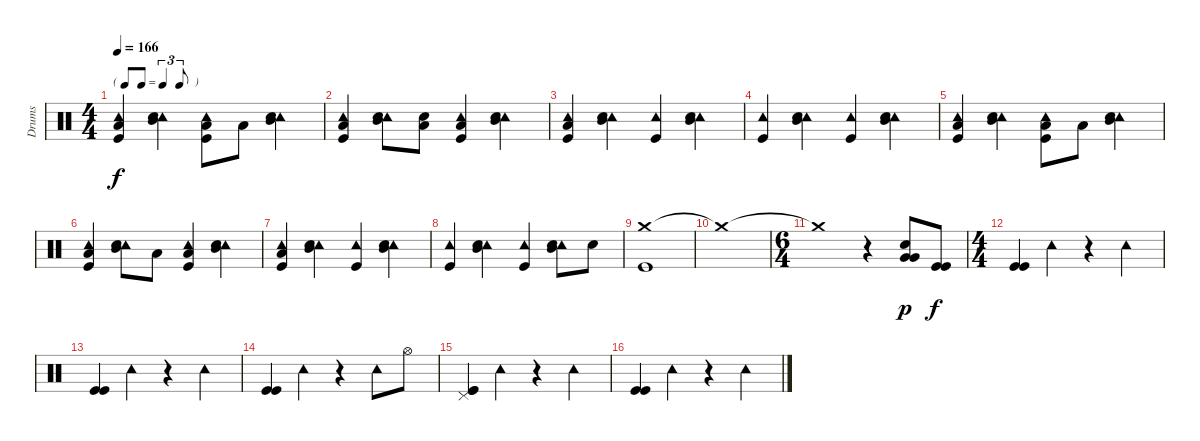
\track ("Drums" "Drums") {instrument percussion}
\staff {score}
\articulation defaults
\ts (4 4)
\tf triplet8th
\tempo 166
\clef neutral
\ks c
("Tambourine (hit)" "Low Floor Tom (hit)" "Kick (hit)").4{dy f} ("Tambourine (hit)" "Snare (hit) 2" "Mid Tom (hit)").4 ("Tambourine (hit)" "Low Tom (hit)" "Kick (hit)").8 "Low Floor Tom (hit)".8 ("Tambourine (hit)" "Snare (hit) 2" "Mid Tom (hit)").4 |
("Tambourine (hit)" "Low Floor Tom (hit)" "Kick (hit)").4 ("Tambourine (hit)" "Snare (hit) 2" "Mid Tom (hit)").8 ("Snare (hit) 2" "Low Tom (hit)").8 ("Tambourine (hit)" "Low Floor Tom (hit)" "Kick (hit)").4 ("Tambourine (hit)" "Snare (hit) 2" "Mid Tom (hit)").4 |
("Tambourine (hit)" "Low Floor Tom (hit)" "Kick (hit)").4 ("Tambourine (hit)" "Snare (hit) 2" "Mid Tom (hit)").4 ("Tambourine (hit)" "Kick (hit)").4 ("Tambourine (hit)" "Snare (hit) 2" "Mid Tom (hit)").4 |
("Tambourine (hit)" "Kick (hit)").4 ("Tambourine (hit)" "Snare (hit) 2" "Mid Tom (hit)").4 ("Tambourine (hit)" "Kick (hit)").4 ("Tambourine (hit)" "Snare (hit) 2" "Mid Tom (hit)").4 |
("Tambourine (hit)" "Low Floor Tom (hit)" "Kick (hit)").4 ("Tambourine (hit)" "Snare (hit) 2" "Mid Tom (hit)").4 ("Tambourine (hit)" "Low Tom (hit)" "Kick (hit)").8 "Low Floor Tom (hit)".8 ("Tambourine (hit)" "Snare (hit) 2" "Mid Tom (hit)").4 |
("Tambourine (hit)" "Low Floor Tom (hit)" "Kick (hit)").4 ("Tambourine (hit)" "Snare (hit) 2" "Mid Tom (hit)").8 "Low Tom (hit)".8 ("Tambourine (hit)" "Low Floor Tom (hit)" "Kick (hit)").4 ("Tambourine (hit)" "Snare (hit) 2" "Mid Tom (hit)").4 |
("Tambourine (hit)" "Low Floor Tom (hit)" "Kick (hit)").4 ("Tambourine (hit)" "Snare (hit) 2" "Mid Tom (hit)").4 ("Tambourine (hit)" "Kick (hit)").4 ("Tambourine (hit)" "Snare (hit) 2" "Mid Tom (hit)").4 |
("Tambourine (hit)" "Kick (hit)").4 ("Tambourine (hit)" "Snare (hit) 2" "Mid Tom (hit)").4 ("Tambourine (hit)" "Kick (hit)").4 ("Tambourine (hit)" "Snare (hit) 2" "Mid Tom (hit)").8 "Snare (hit) 2".8 |
("Crash medium (hit)" "Kick (hit)").1 |
"Crash medium (hit)"{t}.1 |
\ts (6 4)
"Crash medium (hit)"{t}.1 r.4 ("Snare (hit) 2" "Very Low Tom (hit)" "Very Low Tom (hit)").8{dy p} ("Kick (hit)" "Kick (hit)").8{dy f} |
\ts (4 4)
("Kick (hit)" "Kick (hit)").4 "Tambourine (hit)".4 r.4 "Tambourine (hit)".4 |
("Kick (hit)" "Kick (hit)").4 "Tambourine (hit)".4 r.4 "Tambourine (hit)".4 |
("Kick (hit)" "Kick (hit)").4 "Tambourine (hit)".4 r.4 "Tambourine (hit)".8 "Hi-Hat (open)".8 |
("Pedal Hi-Hat (hit)" "Kick (hit)" "Kick (hit)").4 "Tambourine (hit)".4 r.4 "Tambourine (hit)".4 |
("Kick (hit)" "Kick (hit)").4 "Tambourine (hit)".4 r.4 "Tambourine (hit)".4
